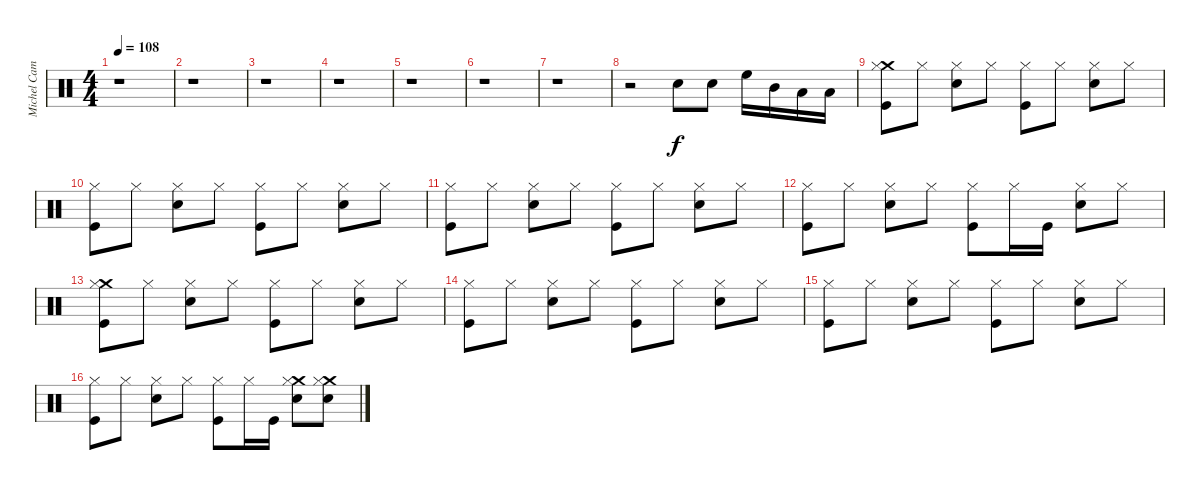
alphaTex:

\track ("Michel Camiade" "Michel Cam") {instrument percussion}
\staff {score}
\articulation defaults
\ts (4 4)
\tempo 108
\clef neutral
\ks c
r.1{dy f} |
r.1 |
r.1 |
r.1 |
r.1 |
r.1 |
r.1 |
r.2 "Snare (hit) 2".8 "Snare (hit) 2".8 "High Floor Tom (hit)".16 "Mid Tom (hit)".16 "Low Tom (hit)".16 "Low Floor Tom (hit)".16 |
("Crash medium (hit)" "Hi-Hat (closed)" "Kick (hit)").8 "Hi-Hat (closed)".8 ("Hi-Hat (closed)" "Snare (hit) 2").8 "Hi-Hat (closed)".8 ("Hi-Hat (closed)" "Kick (hit)").8 "Hi-Hat (closed)".8 ("Hi-Hat (closed)" "Snare (hit) 2").8 "Hi-Hat (closed)".8 |
("Hi-Hat (closed)" "Kick (hit)").8 "Hi-Hat (closed)".8 ("Hi-Hat (closed)" "Snare (hit) 2").8 "Hi-Hat (closed)".8 ("Hi-Hat (closed)" "Kick (hit)").8 "Hi-Hat (closed)".8 ("Hi-Hat (closed)" "Snare (hit) 2").8 "Hi-Hat (closed)".8 |
("Hi-Hat (closed)" "Kick (hit)").8 "Hi-Hat (closed)".8 ("Hi-Hat (closed)" "Snare (hit) 2").8 "Hi-Hat (closed)".8 ("Hi-Hat (closed)" "Kick (hit)").8 "Hi-Hat (closed)".8 ("Hi-Hat (closed)" "Snare (hit) 2").8 "Hi-Hat (closed)".8 |
("Hi-Hat (closed)" "Kick (hit)").8 "Hi-Hat (closed)".8 ("Hi-Hat (closed)" "Snare (hit) 2").8 "Hi-Hat (closed)".8 ("Hi-Hat (closed)" "Kick (hit)").8 "Hi-Hat (closed)".16 "Kick (hit)".16 ("Hi-Hat (closed)" "Snare (hit) 2").8 "Hi-Hat (closed)".8 |
("Crash medium (hit)" "Hi-Hat (closed)" "Kick (hit)").8 "Hi-Hat (closed)".8 ("Hi-Hat (closed)" "Snare (hit) 2").8 "Hi-Hat (closed)".8 ("Hi-Hat (closed)" "Kick (hit)").8 "Hi-Hat (closed)".8 ("Hi-Hat (closed)" "Snare (hit) 2").8 "Hi-Hat (closed)".8 |
("Hi-Hat (closed)" "Kick (hit)").8 "Hi-Hat (closed)".8 ("Hi-Hat (closed)" "Snare (hit) 2").8 "Hi-Hat (closed)".8 ("Hi-Hat (closed)" "Kick (hit)").8 "Hi-Hat (closed)".8 ("Hi-Hat (closed)" "Snare (hit) 2").8 "Hi-Hat (closed)".8 |
("Hi-Hat (closed)" "Kick (hit)").8 "Hi-Hat (closed)".8 ("Hi-Hat (closed)" "Snare (hit) 2").8 "Hi-Hat (closed)".8 ("Hi-Hat (closed)" "Kick (hit)").8 "Hi-Hat (closed)".8 ("Hi-Hat (closed)" "Snare (hit) 2").8 "Hi-Hat (closed)".8 |
("Hi-Hat (closed)" "Kick (hit)").8 "Hi-Hat (closed)".8 ("Hi-Hat (closed)" "Snare (hit) 2").8 "Hi-Hat (closed)".8 ("Hi-Hat (closed)" "Kick (hit)").8 "Hi-Hat (closed)".16 "Kick (hit)".16 ("Crash medium (hit)" "Hi-Hat (closed)" "Snare (hit) 2").8 ("Crash medium (hit)" "Hi-Hat (closed)" "Snare (hit) 2").8
